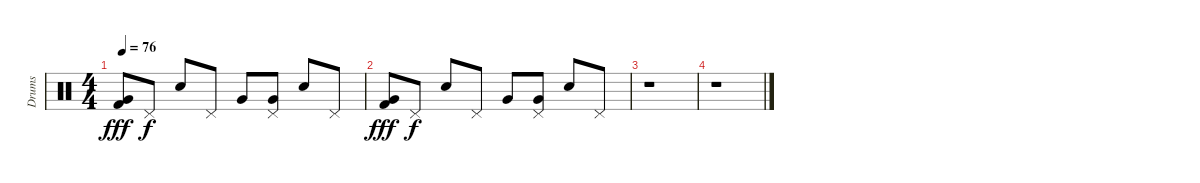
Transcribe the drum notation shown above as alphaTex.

\track ("Drums" "Drums") {instrument percussion}
\staff {score}
\articulation defaults
\ts (4 4)
\tempo 76
\clef neutral
\ks c
("Kick (hit) 2" "Very Low Tom (hit)").8{dy fff} "Pedal Hi-Hat (hit)".8{dy f} "Electric Snare (hit)".8 "Pedal Hi-Hat (hit)".8 "Very Low Tom (hit)".8 ("Very Low Tom (hit)" "Pedal Hi-Hat (hit)").8 "Electric Snare (hit)".8 "Pedal Hi-Hat (hit)".8 |
("Kick (hit) 2" "Very Low Tom (hit)").8{dy fff} "Pedal Hi-Hat (hit)".8{dy f} "Electric Snare (hit)".8 "Pedal Hi-Hat (hit)".8 "Very Low Tom (hit)".8 ("Very Low Tom (hit)" "Pedal Hi-Hat (hit)").8 "Electric Snare (hit)".8 "Pedal Hi-Hat (hit)".8 |
r.1 |
r.1
